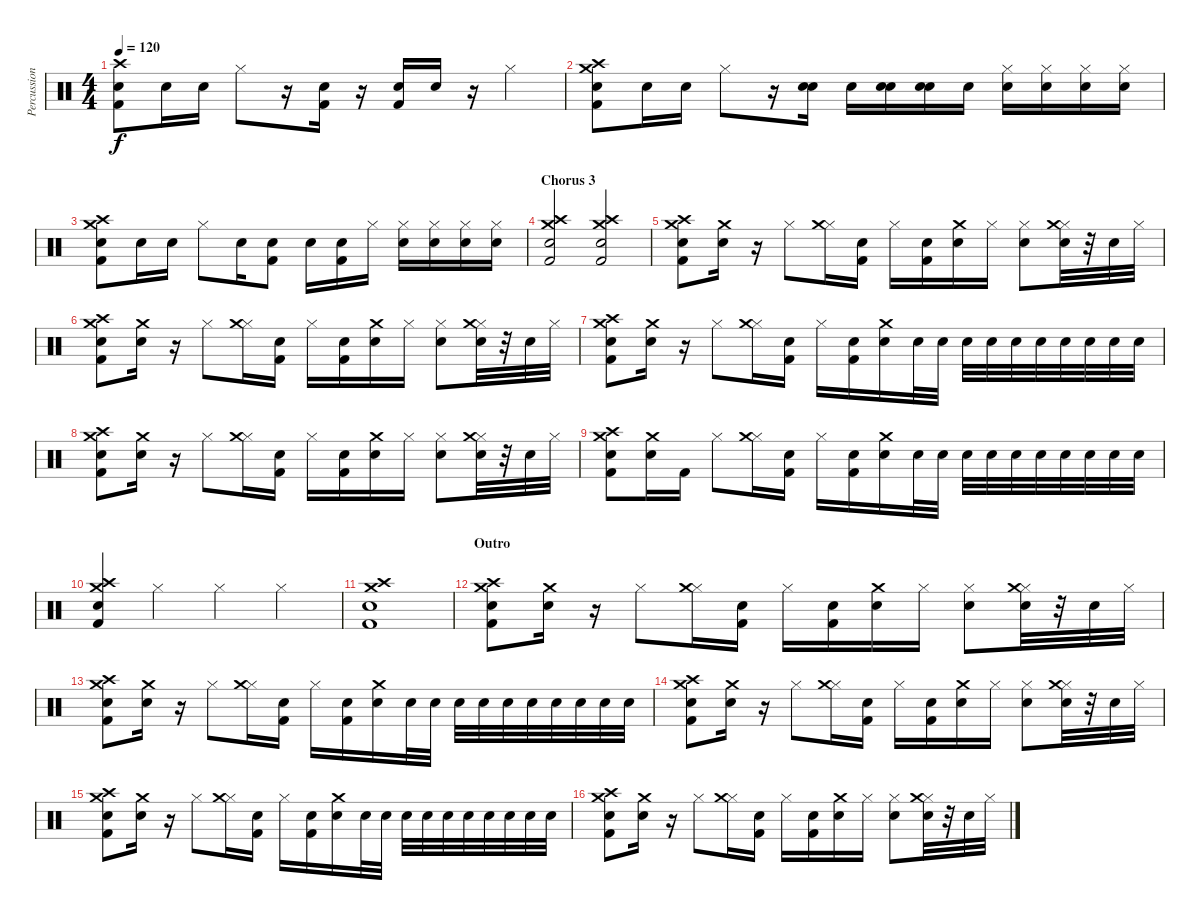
\track ("Percussion" "Percussion") {instrument percussion}
\staff {score}
\articulation defaults
\ts (4 4)
\tempo 120
\clef neutral
\ks c
("Kick (hit) 2" "Electric Snare (hit)" "Crash high (hit)").8{dy f} "Electric Snare (hit)".16 "Electric Snare (hit)".16 "Hi-Hat (closed)".8 r.16 ("Kick (hit) 2" "Electric Snare (hit)").16 r.16 ("Kick (hit) 2" "Electric Snare (hit)").16 "Electric Snare (hit)".16 r.16 "Hi-Hat (closed)".4 |
("Kick (hit) 2" "Electric Snare (hit)" "Crash medium (hit)" "Crash high (hit)").8 "Electric Snare (hit)".16 "Electric Snare (hit)".16 "Hi-Hat (closed)".8 r.16 ("Snare (hit) 2" "Electric Snare (hit)").16 "Snare (hit) 2".16 ("Snare (hit) 2" "Electric Snare (hit)").16 ("Snare (hit) 2" "Electric Snare (hit)").16 "Snare (hit) 2".16 ("Snare (hit) 2" "Hi-Hat (closed)").16 ("Snare (hit) 2" "Hi-Hat (closed)").16 ("Snare (hit) 2" "Hi-Hat (closed)").16 ("Snare (hit) 2" "Hi-Hat (closed)").16 |
("Kick (hit) 2" "Electric Snare (hit)" "Crash medium (hit)" "Crash high (hit)").8 "Electric Snare (hit)".16 "Electric Snare (hit)".16 "Hi-Hat (closed)".8 "Electric Snare (hit)".16 ("Kick (hit) 2" "Electric Snare (hit)").8 "Electric Snare (hit)".16 ("Kick (hit) 2" "Electric Snare (hit)").16 "Hi-Hat (closed)".16 ("Hi-Hat (closed)" "Snare (hit) 2").16 ("Hi-Hat (closed)" "Snare (hit) 2").16 ("Hi-Hat (closed)" "Snare (hit) 2").16 ("Hi-Hat (closed)" "Snare (hit) 2").16 |
\section ("" "Chorus 3")
("Kick (hit) 2" "Snare (hit) 2" "Crash high (hit)" "Crash medium (hit)").2 ("Kick (hit) 2" "Snare (hit) 2" "Crash high (hit)" "Crash medium (hit)").2 |
("Kick (hit) 2" "Snare (hit) 2" "Crash high (hit)" "Crash medium (hit)").8 ("Snare (hit) 2" "Crash medium (hit)").16 r.16 "Hi-Hat (closed)".8 ("Hi-Hat (closed)" "Crash medium (hit)").16 ("Kick (hit) 2" "Snare (hit) 2").16 "Hi-Hat (closed)".16 ("Kick (hit) 2" "Snare (hit) 2").16 ("Snare (hit) 2" "Crash medium (hit)").16 "Hi-Hat (closed)".16 ("Hi-Hat (closed)" "Snare (hit) 2").8 ("Snare (hit) 2" "Hi-Hat (closed)" "Crash medium (hit)").32 r.32 "Snare (hit) 2".32 "Hi-Hat (closed)".32 |
("Kick (hit) 2" "Snare (hit) 2" "Crash high (hit)" "Crash medium (hit)").8 ("Snare (hit) 2" "Crash medium (hit)").16 r.16 "Hi-Hat (closed)".8 ("Hi-Hat (closed)" "Crash medium (hit)").16 ("Kick (hit) 2" "Snare (hit) 2").16 "Hi-Hat (closed)".16 ("Kick (hit) 2" "Snare (hit) 2").16 ("Snare (hit) 2" "Crash medium (hit)").16 "Hi-Hat (closed)".16 ("Hi-Hat (closed)" "Snare (hit) 2").8 ("Snare (hit) 2" "Hi-Hat (closed)" "Crash medium (hit)").32 r.32 "Snare (hit) 2".32 "Hi-Hat (closed)".32 |
("Kick (hit) 2" "Snare (hit) 2" "Crash high (hit)" "Crash medium (hit)").8 ("Snare (hit) 2" "Crash medium (hit)").16 r.16 "Hi-Hat (closed)".8 ("Hi-Hat (closed)" "Crash medium (hit)").16 ("Kick (hit) 2" "Snare (hit) 2").16 "Hi-Hat (closed)".16 ("Kick (hit) 2" "Snare (hit) 2").16 ("Snare (hit) 2" "Crash medium (hit)").16 "Snare (hit) 2".32 "Snare (hit) 2".32 "Snare (hit) 2".32 "Snare (hit) 2".32 "Snare (hit) 2".32 "Snare (hit) 2".32 "Snare (hit) 2".32 "Snare (hit) 2".32 "Snare (hit) 2".32 "Snare (hit) 2".32 |
("Kick (hit) 2" "Snare (hit) 2" "Crash high (hit)" "Crash medium (hit)").8 ("Snare (hit) 2" "Crash medium (hit)").16 r.16 "Hi-Hat (closed)".8 ("Hi-Hat (closed)" "Crash medium (hit)").16 ("Kick (hit) 2" "Snare (hit) 2").16 "Hi-Hat (closed)".16 ("Kick (hit) 2" "Snare (hit) 2").16 ("Snare (hit) 2" "Crash medium (hit)").16 "Hi-Hat (closed)".16 ("Hi-Hat (closed)" "Snare (hit) 2").8 ("Snare (hit) 2" "Hi-Hat (closed)" "Crash medium (hit)").32 r.32 "Snare (hit) 2".32 "Hi-Hat (closed)".32 |
("Kick (hit) 2" "Snare (hit) 2" "Crash high (hit)" "Crash medium (hit)").8 ("Snare (hit) 2" "Crash medium (hit)").16 "Kick (hit) 2".16 "Hi-Hat (closed)".8 ("Hi-Hat (closed)" "Crash medium (hit)").16 ("Kick (hit) 2" "Snare (hit) 2").16 "Hi-Hat (closed)".16 ("Kick (hit) 2" "Snare (hit) 2").16 ("Snare (hit) 2" "Crash medium (hit)").16 "Snare (hit) 2".32 "Snare (hit) 2".32 "Snare (hit) 2".32 "Snare (hit) 2".32 "Snare (hit) 2".32 "Snare (hit) 2".32 "Snare (hit) 2".32 "Snare (hit) 2".32 "Snare (hit) 2".32 "Snare (hit) 2".32 |
("Kick (hit) 2" "Snare (hit) 2" "Crash high (hit)" "Crash medium (hit)").4 "Hi-Hat (closed)".4 "Hi-Hat (closed)".4 "Hi-Hat (closed)".4 |
("Kick (hit) 2" "Snare (hit) 2" "Crash high (hit)" "Crash medium (hit)").1 |
\section ("" "Outro")
("Kick (hit) 2" "Snare (hit) 2" "Crash high (hit)" "Crash medium (hit)").8 ("Snare (hit) 2" "Crash medium (hit)").16 r.16 "Hi-Hat (closed)".8 ("Hi-Hat (closed)" "Crash medium (hit)").16 ("Kick (hit) 2" "Snare (hit) 2").16 "Hi-Hat (closed)".16 ("Kick (hit) 2" "Snare (hit) 2").16 ("Snare (hit) 2" "Crash medium (hit)").16 "Hi-Hat (closed)".16 ("Hi-Hat (closed)" "Snare (hit) 2").8 ("Snare (hit) 2" "Hi-Hat (closed)" "Crash medium (hit)").32 r.32 "Snare (hit) 2".32 "Hi-Hat (closed)".32 |
("Kick (hit) 2" "Snare (hit) 2" "Crash high (hit)" "Crash medium (hit)").8 ("Snare (hit) 2" "Crash medium (hit)").16 r.16 "Hi-Hat (closed)".8 ("Hi-Hat (closed)" "Crash medium (hit)").16 ("Kick (hit) 2" "Snare (hit) 2").16 "Hi-Hat (closed)".16 ("Kick (hit) 2" "Snare (hit) 2").16 ("Snare (hit) 2" "Crash medium (hit)").16 "Snare (hit) 2".32 "Snare (hit) 2".32 "Snare (hit) 2".32 "Snare (hit) 2".32 "Snare (hit) 2".32 "Snare (hit) 2".32 "Snare (hit) 2".32 "Snare (hit) 2".32 "Snare (hit) 2".32 "Snare (hit) 2".32 |
("Kick (hit) 2" "Snare (hit) 2" "Crash high (hit)" "Crash medium (hit)").8 ("Snare (hit) 2" "Crash medium (hit)").16 r.16 "Hi-Hat (closed)".8 ("Hi-Hat (closed)" "Crash medium (hit)").16 ("Kick (hit) 2" "Snare (hit) 2").16 "Hi-Hat (closed)".16 ("Kick (hit) 2" "Snare (hit) 2").16 ("Snare (hit) 2" "Crash medium (hit)").16 "Hi-Hat (closed)".16 ("Hi-Hat (closed)" "Snare (hit) 2").8 ("Snare (hit) 2" "Hi-Hat (closed)" "Crash medium (hit)").32 r.32 "Snare (hit) 2".32 "Hi-Hat (closed)".32 |
("Kick (hit) 2" "Snare (hit) 2" "Crash high (hit)" "Crash medium (hit)").8 ("Snare (hit) 2" "Crash medium (hit)").16 r.16 "Hi-Hat (closed)".8 ("Hi-Hat (closed)" "Crash medium (hit)").16 ("Kick (hit) 2" "Snare (hit) 2").16 "Hi-Hat (closed)".16 ("Kick (hit) 2" "Snare (hit) 2").16 ("Snare (hit) 2" "Crash medium (hit)").16 "Snare (hit) 2".32 "Snare (hit) 2".32 "Snare (hit) 2".32 "Snare (hit) 2".32 "Snare (hit) 2".32 "Snare (hit) 2".32 "Snare (hit) 2".32 "Snare (hit) 2".32 "Snare (hit) 2".32 "Snare (hit) 2".32 |
("Kick (hit) 2" "Snare (hit) 2" "Crash high (hit)" "Crash medium (hit)").8 ("Snare (hit) 2" "Crash medium (hit)").16 r.16 "Hi-Hat (closed)".8 ("Hi-Hat (closed)" "Crash medium (hit)").16 ("Kick (hit) 2" "Snare (hit) 2").16 "Hi-Hat (closed)".16 ("Kick (hit) 2" "Snare (hit) 2").16 ("Snare (hit) 2" "Crash medium (hit)").16 "Hi-Hat (closed)".16 ("Hi-Hat (closed)" "Snare (hit) 2").8 ("Snare (hit) 2" "Hi-Hat (closed)" "Crash medium (hit)").32 r.32 "Snare (hit) 2".32 "Hi-Hat (closed)".32
